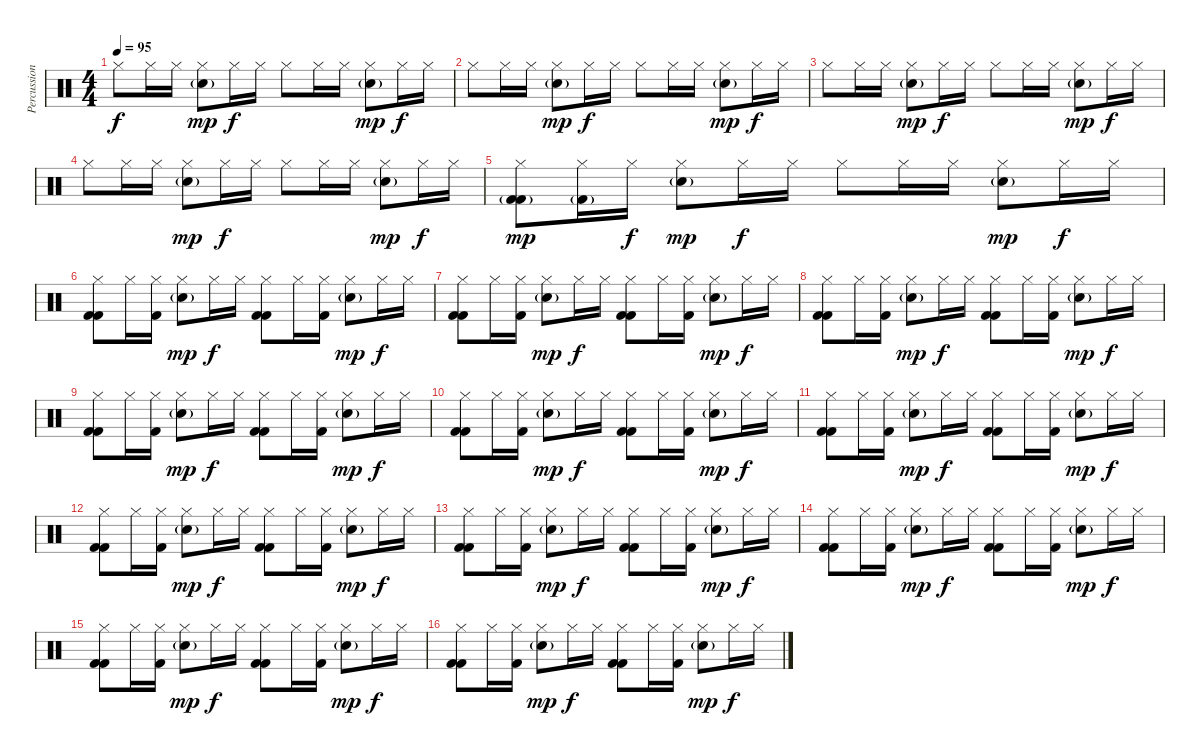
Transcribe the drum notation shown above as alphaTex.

\track ("Percussion" "Percussion") {instrument percussion}
\staff {score}
\articulation defaults
\ts (4 4)
\tempo 95
\clef neutral
\ks c "Hi-Hat (closed)".8{dy f} "Hi-Hat (closed)".16 "Hi-Hat (closed)".16
("Snare (hit) 2"{g} "Hi-Hat (closed)").8{dy mp} "Hi-Hat (closed)".16{dy f} "Hi-Hat (closed)".16 "Hi-Hat (closed)".8 "Hi-Hat (closed)".16 "Hi-Hat (closed)".16 ("Snare (hit) 2"{g} "Hi-Hat (closed)").8{dy mp} "Hi-Hat (closed)".16{dy f} "Hi-Hat (closed)".16 |
"Hi-Hat (closed)".8 "Hi-Hat (closed)".16 "Hi-Hat (closed)".16 ("Snare (hit) 2"{g} "Hi-Hat (closed)").8{dy mp} "Hi-Hat (closed)".16{dy f} "Hi-Hat (closed)".16 "Hi-Hat (closed)".8 "Hi-Hat (closed)".16 "Hi-Hat (closed)".16 ("Snare (hit) 2"{g} "Hi-Hat (closed)").8{dy mp} "Hi-Hat (closed)".16{dy f} "Hi-Hat (closed)".16 |
"Hi-Hat (closed)".8 "Hi-Hat (closed)".16 "Hi-Hat (closed)".16 ("Snare (hit) 2"{g} "Hi-Hat (closed)").8{dy mp} "Hi-Hat (closed)".16{dy f} "Hi-Hat (closed)".16 "Hi-Hat (closed)".8 "Hi-Hat (closed)".16 "Hi-Hat (closed)".16 ("Snare (hit) 2"{g} "Hi-Hat (closed)").8{dy mp} "Hi-Hat (closed)".16{dy f} "Hi-Hat (closed)".16 |
"Hi-Hat (closed)".8 "Hi-Hat (closed)".16 "Hi-Hat (closed)".16 ("Snare (hit) 2"{g} "Hi-Hat (closed)").8{dy mp} "Hi-Hat (closed)".16{dy f} "Hi-Hat (closed)".16 "Hi-Hat (closed)".8 "Hi-Hat (closed)".16 "Hi-Hat (closed)".16 ("Snare (hit) 2"{g} "Hi-Hat (closed)").8{dy mp} "Hi-Hat (closed)".16{dy f} "Hi-Hat (closed)".16 |
("Kick (hit) 2"{g} "Kick (hit) 2"{g} "Hi-Hat (closed)").8{dy mp} ("Kick (hit) 2"{g} "Hi-Hat (closed)").16 "Hi-Hat (closed)".16{dy f} ("Snare (hit) 2"{g} "Hi-Hat (closed)").8{dy mp} "Hi-Hat (closed)".16{dy f} "Hi-Hat (closed)".16 "Hi-Hat (closed)".8 "Hi-Hat (closed)".16 "Hi-Hat (closed)".16 ("Snare (hit) 2"{g} "Hi-Hat (closed)").8{dy mp} "Hi-Hat (closed)".16{dy f} "Hi-Hat (closed)".16 |
("Kick (hit) 2" "Kick (hit) 2" "Hi-Hat (closed)").8 "Hi-Hat (closed)".16 ("Kick (hit) 2" "Hi-Hat (closed)").16 ("Snare (hit) 2"{g} "Hi-Hat (closed)").8{dy mp} "Hi-Hat (closed)".16{dy f} "Hi-Hat (closed)".16 ("Kick (hit) 2" "Kick (hit) 2" "Hi-Hat (closed)").8 "Hi-Hat (closed)".16 ("Kick (hit) 2" "Hi-Hat (closed)").16 ("Snare (hit) 2"{g} "Hi-Hat (closed)").8{dy mp} "Hi-Hat (closed)".16{dy f} "Hi-Hat (closed)".16 |
("Kick (hit) 2" "Kick (hit) 2" "Hi-Hat (closed)").8 "Hi-Hat (closed)".16 ("Kick (hit) 2" "Hi-Hat (closed)").16 ("Snare (hit) 2"{g} "Hi-Hat (closed)").8{dy mp} "Hi-Hat (closed)".16{dy f} "Hi-Hat (closed)".16 ("Kick (hit) 2" "Kick (hit) 2" "Hi-Hat (closed)").8 "Hi-Hat (closed)".16 ("Kick (hit) 2" "Hi-Hat (closed)").16 ("Snare (hit) 2"{g} "Hi-Hat (closed)").8{dy mp} "Hi-Hat (closed)".16{dy f} "Hi-Hat (closed)".16 |
("Kick (hit) 2" "Kick (hit) 2" "Hi-Hat (closed)").8 "Hi-Hat (closed)".16 ("Kick (hit) 2" "Hi-Hat (closed)").16 ("Snare (hit) 2"{g} "Hi-Hat (closed)").8{dy mp} "Hi-Hat (closed)".16{dy f} "Hi-Hat (closed)".16 ("Kick (hit) 2" "Kick (hit) 2" "Hi-Hat (closed)").8 "Hi-Hat (closed)".16 ("Kick (hit) 2" "Hi-Hat (closed)").16 ("Snare (hit) 2"{g} "Hi-Hat (closed)").8{dy mp} "Hi-Hat (closed)".16{dy f} "Hi-Hat (closed)".16 |
("Kick (hit) 2" "Kick (hit) 2" "Hi-Hat (closed)").8 "Hi-Hat (closed)".16 ("Kick (hit) 2" "Hi-Hat (closed)").16 ("Snare (hit) 2"{g} "Hi-Hat (closed)").8{dy mp} "Hi-Hat (closed)".16{dy f} "Hi-Hat (closed)".16 ("Kick (hit) 2" "Kick (hit) 2" "Hi-Hat (closed)").8 "Hi-Hat (closed)".16 ("Kick (hit) 2" "Hi-Hat (closed)").16 ("Snare (hit) 2"{g} "Hi-Hat (closed)").8{dy mp} "Hi-Hat (closed)".16{dy f} "Hi-Hat (closed)".16 |
("Kick (hit) 2" "Kick (hit) 2" "Hi-Hat (closed)").8 "Hi-Hat (closed)".16 ("Kick (hit) 2" "Hi-Hat (closed)").16 ("Snare (hit) 2"{g} "Hi-Hat (closed)").8{dy mp} "Hi-Hat (closed)".16{dy f} "Hi-Hat (closed)".16 ("Kick (hit) 2" "Kick (hit) 2" "Hi-Hat (closed)").8 "Hi-Hat (closed)".16 ("Kick (hit) 2" "Hi-Hat (closed)").16 ("Snare (hit) 2"{g} "Hi-Hat (closed)").8{dy mp} "Hi-Hat (closed)".16{dy f} "Hi-Hat (closed)".16 |
("Kick (hit) 2" "Kick (hit) 2" "Hi-Hat (closed)").8 "Hi-Hat (closed)".16 ("Kick (hit) 2" "Hi-Hat (closed)").16 ("Snare (hit) 2"{g} "Hi-Hat (closed)").8{dy mp} "Hi-Hat (closed)".16{dy f} "Hi-Hat (closed)".16 ("Kick (hit) 2" "Kick (hit) 2" "Hi-Hat (closed)").8 "Hi-Hat (closed)".16 ("Kick (hit) 2" "Hi-Hat (closed)").16 ("Snare (hit) 2"{g} "Hi-Hat (closed)").8{dy mp} "Hi-Hat (closed)".16{dy f} "Hi-Hat (closed)".16 |
("Kick (hit) 2" "Kick (hit) 2" "Hi-Hat (closed)").8 "Hi-Hat (closed)".16 ("Kick (hit) 2" "Hi-Hat (closed)").16 ("Snare (hit) 2"{g} "Hi-Hat (closed)").8{dy mp} "Hi-Hat (closed)".16{dy f} "Hi-Hat (closed)".16 ("Kick (hit) 2" "Kick (hit) 2" "Hi-Hat (closed)").8 "Hi-Hat (closed)".16 ("Kick (hit) 2" "Hi-Hat (closed)").16 ("Snare (hit) 2"{g} "Hi-Hat (closed)").8{dy mp} "Hi-Hat (closed)".16{dy f} "Hi-Hat (closed)".16 |
("Kick (hit) 2" "Kick (hit) 2" "Hi-Hat (closed)").8 "Hi-Hat (closed)".16 ("Kick (hit) 2" "Hi-Hat (closed)").16 ("Snare (hit) 2"{g} "Hi-Hat (closed)").8{dy mp} "Hi-Hat (closed)".16{dy f} "Hi-Hat (closed)".16 ("Kick (hit) 2" "Kick (hit) 2" "Hi-Hat (closed)").8 "Hi-Hat (closed)".16 ("Kick (hit) 2" "Hi-Hat (closed)").16 ("Snare (hit) 2"{g} "Hi-Hat (closed)").8{dy mp} "Hi-Hat (closed)".16{dy f} "Hi-Hat (closed)".16 |
("Kick (hit) 2" "Kick (hit) 2" "Hi-Hat (closed)").8 "Hi-Hat (closed)".16 ("Kick (hit) 2" "Hi-Hat (closed)").16 ("Snare (hit) 2"{g} "Hi-Hat (closed)").8{dy mp} "Hi-Hat (closed)".16{dy f} "Hi-Hat (closed)".16 ("Kick (hit) 2" "Kick (hit) 2" "Hi-Hat (closed)").8 "Hi-Hat (closed)".16 ("Kick (hit) 2" "Hi-Hat (closed)").16 ("Snare (hit) 2"{g} "Hi-Hat (closed)").8{dy mp} "Hi-Hat (closed)".16{dy f} "Hi-Hat (closed)".16 |
("Kick (hit) 2" "Kick (hit) 2" "Hi-Hat (closed)").8 "Hi-Hat (closed)".16 ("Kick (hit) 2" "Hi-Hat (closed)").16 ("Snare (hit) 2"{g} "Hi-Hat (closed)").8{dy mp} "Hi-Hat (closed)".16{dy f} "Hi-Hat (closed)".16 ("Kick (hit) 2" "Kick (hit) 2" "Hi-Hat (closed)").8 "Hi-Hat (closed)".16 ("Kick (hit) 2" "Hi-Hat (closed)").16 ("Snare (hit) 2"{g} "Hi-Hat (closed)").8{dy mp} "Hi-Hat (closed)".16{dy f} "Hi-Hat (closed)".16 |
("Kick (hit) 2" "Kick (hit) 2" "Hi-Hat (closed)").8 "Hi-Hat (closed)".16 ("Kick (hit) 2" "Hi-Hat (closed)").16 ("Snare (hit) 2"{g} "Hi-Hat (closed)").8{dy mp} "Hi-Hat (closed)".16{dy f} "Hi-Hat (closed)".16 ("Kick (hit) 2" "Kick (hit) 2" "Hi-Hat (closed)").8 "Hi-Hat (closed)".16 ("Kick (hit) 2" "Hi-Hat (closed)").16 ("Snare (hit) 2"{g} "Hi-Hat (closed)").8{dy mp} "Hi-Hat (closed)".16{dy f} "Hi-Hat (closed)".16
